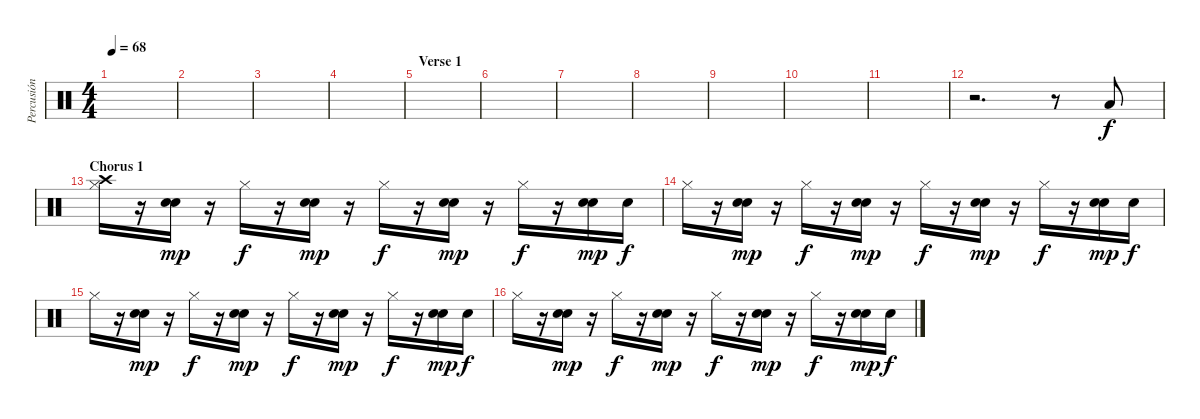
\track ("Percusión" "Percusión") {instrument percussion}
\staff {score}
\articulation defaults
\ts (4 4)
\tempo 68
\clef neutral
\ks c
|
|
|
|
\section ("" "Verse 1")
|
|
|
|
|
|
|
r.2{d} r.8 "Low Tom (hit)".8 |
\section ("" "Chorus 1")
("Hi-Hat (closed)" "Crash high (hit)").16 r.16 ("Electric Snare (hit)" "Hand Clap (hit)").16{dy mp} r.16 "Hi-Hat (closed)".16{dy f} r.16 ("Electric Snare (hit)" "Hand Clap (hit)").16{dy mp} r.16 "Hi-Hat (closed)".16{dy f} r.16 ("Electric Snare (hit)" "Hand Clap (hit)").16{dy mp} r.16 "Hi-Hat (closed)".16{dy f} r.16 ("Electric Snare (hit)" "Hand Clap (hit)").16{dy mp} "Electric Snare (hit)".16{dy f} |
"Hi-Hat (closed)".16 r.16 ("Electric Snare (hit)" "Hand Clap (hit)").16{dy mp} r.16 "Hi-Hat (closed)".16{dy f} r.16 ("Electric Snare (hit)" "Hand Clap (hit)").16{dy mp} r.16 "Hi-Hat (closed)".16{dy f} r.16 ("Electric Snare (hit)" "Hand Clap (hit)").16{dy mp} r.16 "Hi-Hat (closed)".16{dy f} r.16 ("Electric Snare (hit)" "Hand Clap (hit)").16{dy mp} "Electric Snare (hit)".16{dy f} |
"Hi-Hat (closed)".16 r.16 ("Electric Snare (hit)" "Hand Clap (hit)").16{dy mp} r.16 "Hi-Hat (closed)".16{dy f} r.16 ("Electric Snare (hit)" "Hand Clap (hit)").16{dy mp} r.16 "Hi-Hat (closed)".16{dy f} r.16 ("Electric Snare (hit)" "Hand Clap (hit)").16{dy mp} r.16 "Hi-Hat (closed)".16{dy f} r.16 ("Electric Snare (hit)" "Hand Clap (hit)").16{dy mp} "Electric Snare (hit)".16{dy f} |
"Hi-Hat (closed)".16 r.16 ("Electric Snare (hit)" "Hand Clap (hit)").16{dy mp} r.16 "Hi-Hat (closed)".16{dy f} r.16 ("Electric Snare (hit)" "Hand Clap (hit)").16{dy mp} r.16 "Hi-Hat (closed)".16{dy f} r.16 ("Electric Snare (hit)" "Hand Clap (hit)").16{dy mp} r.16 "Hi-Hat (closed)".16{dy f} r.16 ("Electric Snare (hit)" "Hand Clap (hit)").16{dy mp} "Electric Snare (hit)".16{dy f}
